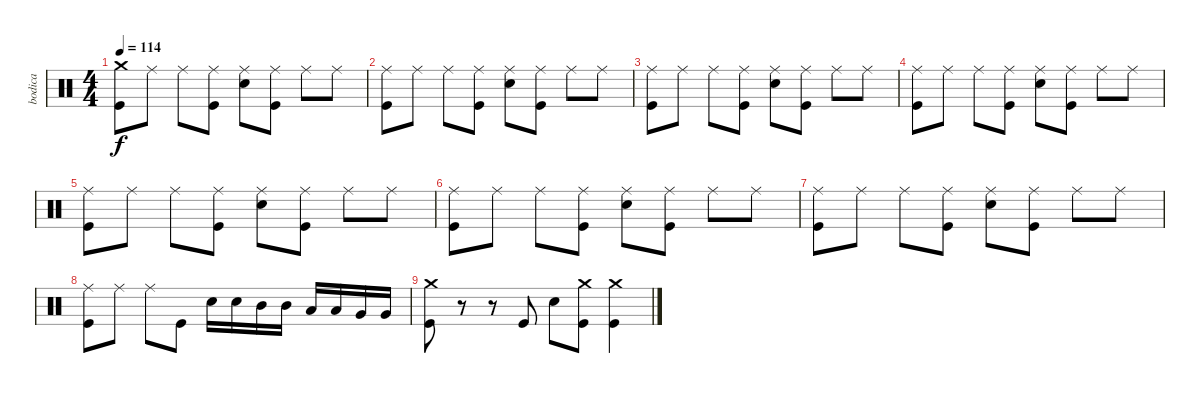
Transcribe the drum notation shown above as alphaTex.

\track ("bodica" "bodica") {instrument percussion}
\staff {score}
\articulation defaults
\ts (4 4)
\tempo 114
\clef neutral
\ks c
("Crash medium (hit)" "Kick (hit)").8{dy f} "Ride (middle)".8 "Ride (middle)".8 ("Ride (middle)" "Kick (hit)").8 ("Ride (middle)" "Snare (hit) 2").8 ("Ride (middle)" "Kick (hit)").8 "Ride (middle)".8 "Ride (middle)".8 |
("Ride (middle)" "Kick (hit)").8 "Ride (middle)".8 "Ride (middle)".8 ("Ride (middle)" "Kick (hit)").8 ("Ride (middle)" "Snare (hit) 2").8 ("Ride (middle)" "Kick (hit)").8 "Ride (middle)".8 "Ride (middle)".8 |
("Ride (middle)" "Kick (hit)").8 "Ride (middle)".8 "Ride (middle)".8 ("Ride (middle)" "Kick (hit)").8 ("Ride (middle)" "Snare (hit) 2").8 ("Ride (middle)" "Kick (hit)").8 "Ride (middle)".8 "Ride (middle)".8 |
("Ride (middle)" "Kick (hit)").8 "Ride (middle)".8 "Ride (middle)".8 ("Ride (middle)" "Kick (hit)").8 ("Ride (middle)" "Snare (hit) 2").8 ("Ride (middle)" "Kick (hit)").8 "Ride (middle)".8 "Ride (middle)".8 |
("Ride (middle)" "Kick (hit)").8 "Ride (middle)".8 "Ride (middle)".8 ("Ride (middle)" "Kick (hit)").8 ("Ride (middle)" "Snare (hit) 2").8 ("Ride (middle)" "Kick (hit)").8 "Ride (middle)".8 "Ride (middle)".8 |
("Ride (middle)" "Kick (hit)").8 "Ride (middle)".8 "Ride (middle)".8 ("Ride (middle)" "Kick (hit)").8 ("Ride (middle)" "Snare (hit) 2").8 ("Ride (middle)" "Kick (hit)").8 "Ride (middle)".8 "Ride (middle)".8 |
("Ride (middle)" "Kick (hit)").8 "Ride (middle)".8 "Ride (middle)".8 ("Ride (middle)" "Kick (hit)").8 ("Ride (middle)" "Snare (hit) 2").8 ("Ride (middle)" "Kick (hit)").8 "Ride (middle)".8 "Ride (middle)".8 |
("Ride (middle)" "Kick (hit)").8 "Ride (middle)".8 "Ride (middle)".8 "Kick (hit)".8 "Snare (hit) 2".16 "Snare (hit) 2".16 "Mid Tom (hit)".16 "Mid Tom (hit)".16 "Low Tom (hit)".16 "Low Tom (hit)".16 "Very Low Tom (hit)".16 "Very Low Tom (hit)".16 |
("Crash medium (hit)" "Kick (hit)").8 r.8 r.8 "Kick (hit)".8 "Snare (hit) 2".8 ("Crash medium (hit)" "Kick (hit)").8 ("Crash medium (hit)" "Kick (hit)").4
